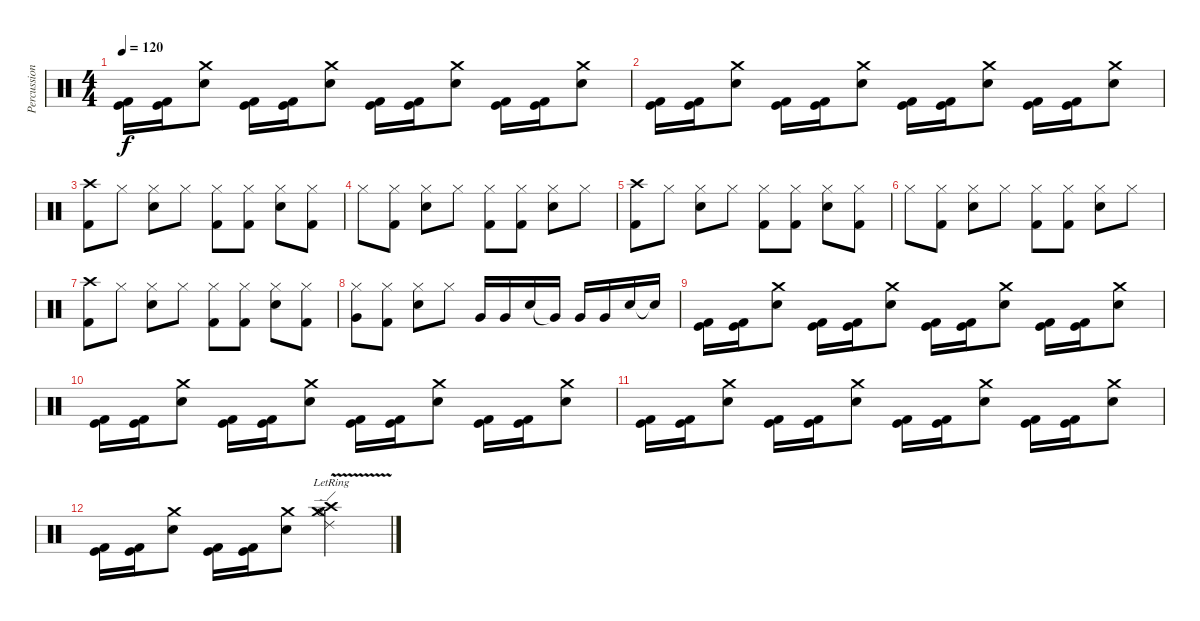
\track ("Percussion" "Percussion") {instrument percussion}
\staff {score}
\articulation defaults
\ts (4 4)
\tempo 120
\clef neutral
\ks c
("Kick (hit)" "Kick (hit) 2").16{dy f} ("Kick (hit)" "Kick (hit) 2").16 ("Electric Snare (hit)" "Crash medium (hit)").8 ("Kick (hit)" "Kick (hit) 2").16 ("Kick (hit)" "Kick (hit) 2").16 ("Electric Snare (hit)" "Crash medium (hit)").8 ("Kick (hit)" "Kick (hit) 2").16 ("Kick (hit)" "Kick (hit) 2").16 ("Electric Snare (hit)" "Crash medium (hit)").8 ("Kick (hit)" "Kick (hit) 2").16 ("Kick (hit)" "Kick (hit) 2").16 ("Electric Snare (hit)" "Crash medium (hit)").8 |
("Kick (hit)" "Kick (hit) 2").16 ("Kick (hit)" "Kick (hit) 2").16 ("Electric Snare (hit)" "Crash medium (hit)").8 ("Kick (hit)" "Kick (hit) 2").16 ("Kick (hit)" "Kick (hit) 2").16 ("Electric Snare (hit)" "Crash medium (hit)").8 ("Kick (hit)" "Kick (hit) 2").16 ("Kick (hit)" "Kick (hit) 2").16 ("Electric Snare (hit)" "Crash medium (hit)").8 ("Kick (hit)" "Kick (hit) 2").16 ("Kick (hit)" "Kick (hit) 2").16 ("Electric Snare (hit)" "Crash medium (hit)").8 |
("Kick (hit) 2" "Crash high (hit)").8 "Hi-Hat (closed)".8 ("Snare (hit) 2" "Hi-Hat (closed)").8 "Hi-Hat (closed)".8 ("Kick (hit) 2" "Hi-Hat (closed)").8 ("Kick (hit) 2" "Hi-Hat (closed)").8 ("Snare (hit) 2" "Hi-Hat (closed)").8 ("Kick (hit) 2" "Hi-Hat (closed)").8 |
"Hi-Hat (closed)".8 ("Kick (hit) 2" "Hi-Hat (closed)").8 ("Snare (hit) 2" "Hi-Hat (closed)").8 "Hi-Hat (closed)".8 ("Kick (hit) 2" "Hi-Hat (closed)").8 ("Kick (hit) 2" "Hi-Hat (closed)").8 ("Snare (hit) 2" "Hi-Hat (closed)").8 "Hi-Hat (closed)".8 |
("Kick (hit) 2" "Crash high (hit)").8 "Hi-Hat (closed)".8 ("Snare (hit) 2" "Hi-Hat (closed)").8 "Hi-Hat (closed)".8 ("Kick (hit) 2" "Hi-Hat (closed)").8 ("Kick (hit) 2" "Hi-Hat (closed)").8 ("Snare (hit) 2" "Hi-Hat (closed)").8 ("Kick (hit) 2" "Hi-Hat (closed)").8 |
"Hi-Hat (closed)".8 ("Kick (hit) 2" "Hi-Hat (closed)").8 ("Snare (hit) 2" "Hi-Hat (closed)").8 "Hi-Hat (closed)".8 ("Kick (hit) 2" "Hi-Hat (closed)").8 ("Kick (hit) 2" "Hi-Hat (closed)").8 ("Snare (hit) 2" "Hi-Hat (closed)").8 "Hi-Hat (closed)".8 |
("Kick (hit) 2" "Crash high (hit)").8 "Hi-Hat (closed)".8 ("Snare (hit) 2" "Hi-Hat (closed)").8 "Hi-Hat (closed)".8 ("Kick (hit) 2" "Hi-Hat (closed)").8 ("Kick (hit) 2" "Hi-Hat (closed)").8 ("Snare (hit) 2" "Hi-Hat (closed)").8 ("Kick (hit) 2" "Hi-Hat (closed)").8 |
("Very Low Tom (hit)" "Hi-Hat (closed)").8 ("Kick (hit) 2" "Hi-Hat (closed)").8 ("Snare (hit) 2" "Hi-Hat (closed)").8 "Hi-Hat (closed)".8 "Very Low Tom (hit)".16 "Very Low Tom (hit)".16 "Snare (hit) 2".16 "Very Low Tom (hit)"{t}.16 "Very Low Tom (hit)".16 "Very Low Tom (hit)".16 "Snare (hit) 2".16 "Snare (hit)"{t}.16 |
("Kick (hit)" "Kick (hit) 2").16 ("Kick (hit)" "Kick (hit) 2").16 ("Electric Snare (hit)" "Crash medium (hit)").8 ("Kick (hit)" "Kick (hit) 2").16 ("Kick (hit)" "Kick (hit) 2").16 ("Electric Snare (hit)" "Crash medium (hit)").8 ("Kick (hit)" "Kick (hit) 2").16 ("Kick (hit)" "Kick (hit) 2").16 ("Electric Snare (hit)" "Crash medium (hit)").8 ("Kick (hit)" "Kick (hit) 2").16 ("Kick (hit)" "Kick (hit) 2").16 ("Electric Snare (hit)" "Crash medium (hit)").8 |
("Kick (hit)" "Kick (hit) 2").16 ("Kick (hit)" "Kick (hit) 2").16 ("Electric Snare (hit)" "Crash medium (hit)").8 ("Kick (hit)" "Kick (hit) 2").16 ("Kick (hit)" "Kick (hit) 2").16 ("Electric Snare (hit)" "Crash medium (hit)").8 ("Kick (hit)" "Kick (hit) 2").16 ("Kick (hit)" "Kick (hit) 2").16 ("Electric Snare (hit)" "Crash medium (hit)").8 ("Kick (hit)" "Kick (hit) 2").16 ("Kick (hit)" "Kick (hit) 2").16 ("Electric Snare (hit)" "Crash medium (hit)").8 |
("Kick (hit)" "Kick (hit) 2").16 ("Kick (hit)" "Kick (hit) 2").16 ("Electric Snare (hit)" "Crash medium (hit)").8 ("Kick (hit)" "Kick (hit) 2").16 ("Kick (hit)" "Kick (hit) 2").16 ("Electric Snare (hit)" "Crash medium (hit)").8 ("Kick (hit)" "Kick (hit) 2").16 ("Kick (hit)" "Kick (hit) 2").16 ("Electric Snare (hit)" "Crash medium (hit)").8 ("Kick (hit)" "Kick (hit) 2").16 ("Kick (hit)" "Kick (hit) 2").16 ("Electric Snare (hit)" "Crash medium (hit)").8 |
("Kick (hit)" "Kick (hit) 2").16 ("Kick (hit)" "Kick (hit) 2").16 ("Electric Snare (hit)" "Crash medium (hit)").8 ("Kick (hit)" "Kick (hit) 2").16 ("Kick (hit)" "Kick (hit) 2").16 ("Electric Snare (hit)" "Crash medium (hit)").8 ("Crash medium (hit)"{v lr} "Crash high (hit)" "Ride (edge) 2" "Hi-Hat (open)").2{volume 16}
